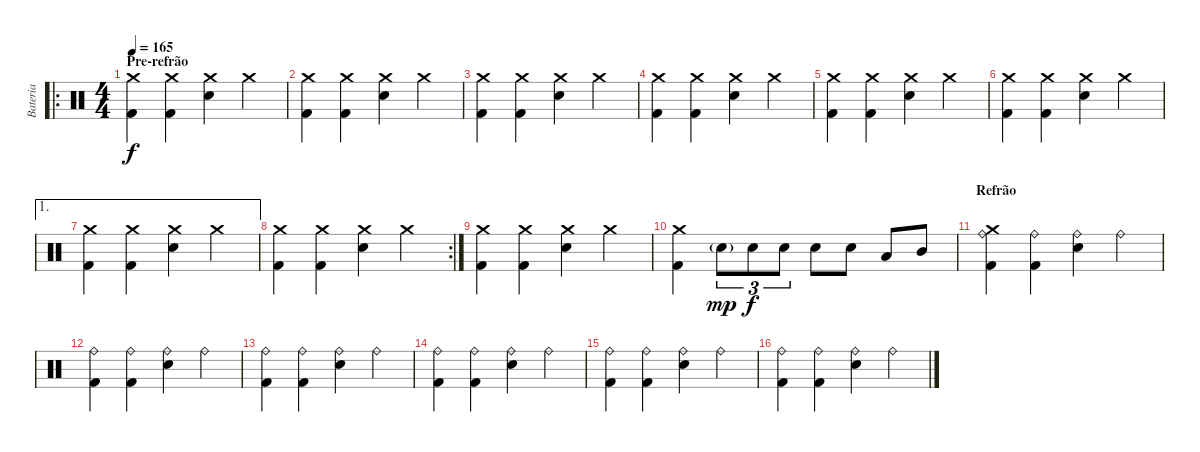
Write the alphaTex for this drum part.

\track ("Bateria" "Bateria") {instrument percussion}
\staff {score}
\articulation defaults
\ro
\ts (4 4)
\section ("" "Pre-refrão")
\tempo 165
\clef neutral
\ks c
("Crash medium (hit)" "Kick (hit) 2").4{dy f} ("Crash medium (hit)" "Kick (hit) 2").4 ("Crash medium (hit)" "Electric Snare (hit)").4 "Crash medium (hit)".4 |
("Crash medium (hit)" "Kick (hit) 2").4 ("Crash medium (hit)" "Kick (hit) 2").4 ("Crash medium (hit)" "Electric Snare (hit)").4 "Crash medium (hit)".4 |
("Crash medium (hit)" "Kick (hit) 2").4 ("Crash medium (hit)" "Kick (hit) 2").4 ("Crash medium (hit)" "Electric Snare (hit)").4 "Crash medium (hit)".4 |
("Crash medium (hit)" "Kick (hit) 2").4 ("Crash medium (hit)" "Kick (hit) 2").4 ("Crash medium (hit)" "Electric Snare (hit)").4 "Crash medium (hit)".4 |
("Crash medium (hit)" "Kick (hit) 2").4 ("Crash medium (hit)" "Kick (hit) 2").4 ("Crash medium (hit)" "Electric Snare (hit)").4 "Crash medium (hit)".4 |
("Crash medium (hit)" "Kick (hit) 2").4 ("Crash medium (hit)" "Kick (hit) 2").4 ("Crash medium (hit)" "Electric Snare (hit)").4 "Crash medium (hit)".4 |
\ae 1
("Crash medium (hit)" "Kick (hit) 2").4 ("Crash medium (hit)" "Kick (hit) 2").4 ("Crash medium (hit)" "Electric Snare (hit)").4 "Crash medium (hit)".4 |
\rc 2
("Crash medium (hit)" "Kick (hit) 2").4 ("Crash medium (hit)" "Kick (hit) 2").4 ("Crash medium (hit)" "Electric Snare (hit)").4 "Crash medium (hit)".4 |
("Crash medium (hit)" "Kick (hit) 2").4 ("Crash medium (hit)" "Kick (hit) 2").4 ("Crash medium (hit)" "Electric Snare (hit)").4 "Crash medium (hit)".4 |
("Crash medium (hit)" "Kick (hit) 2").4 "Electric Snare (hit)"{g}.8{tu (3 2) dy mp} "Electric Snare (hit)".8{tu (3 2) dy f} "Electric Snare (hit)".8{tu (3 2)} "Electric Snare (hit)".8 "Electric Snare (hit)".8 "Low Tom (hit)".8 "Mid Tom (hit)".8 |
\section ("" "Refrão")
("Crash medium (hit)" "Ride (bell)" "Kick (hit) 2").4 ("Ride (bell)" "Kick (hit) 2").4 ("Ride (bell)" "Electric Snare (hit)").4 "Ride (bell)".4 |
("Ride (bell)" "Kick (hit) 2").4 ("Ride (bell)" "Kick (hit) 2").4 ("Ride (bell)" "Electric Snare (hit)").4 "Ride (bell)".4 |
("Ride (bell)" "Kick (hit) 2").4 ("Ride (bell)" "Kick (hit) 2").4 ("Ride (bell)" "Electric Snare (hit)").4 "Ride (bell)".4 |
("Ride (bell)" "Kick (hit) 2").4 ("Ride (bell)" "Kick (hit) 2").4 ("Ride (bell)" "Electric Snare (hit)").4 "Ride (bell)".4 |
("Ride (bell)" "Kick (hit) 2").4 ("Ride (bell)" "Kick (hit) 2").4 ("Ride (bell)" "Electric Snare (hit)").4 "Ride (bell)".4 |
("Ride (bell)" "Kick (hit) 2").4 ("Ride (bell)" "Kick (hit) 2").4 ("Ride (bell)" "Electric Snare (hit)").4 "Ride (bell)".4
